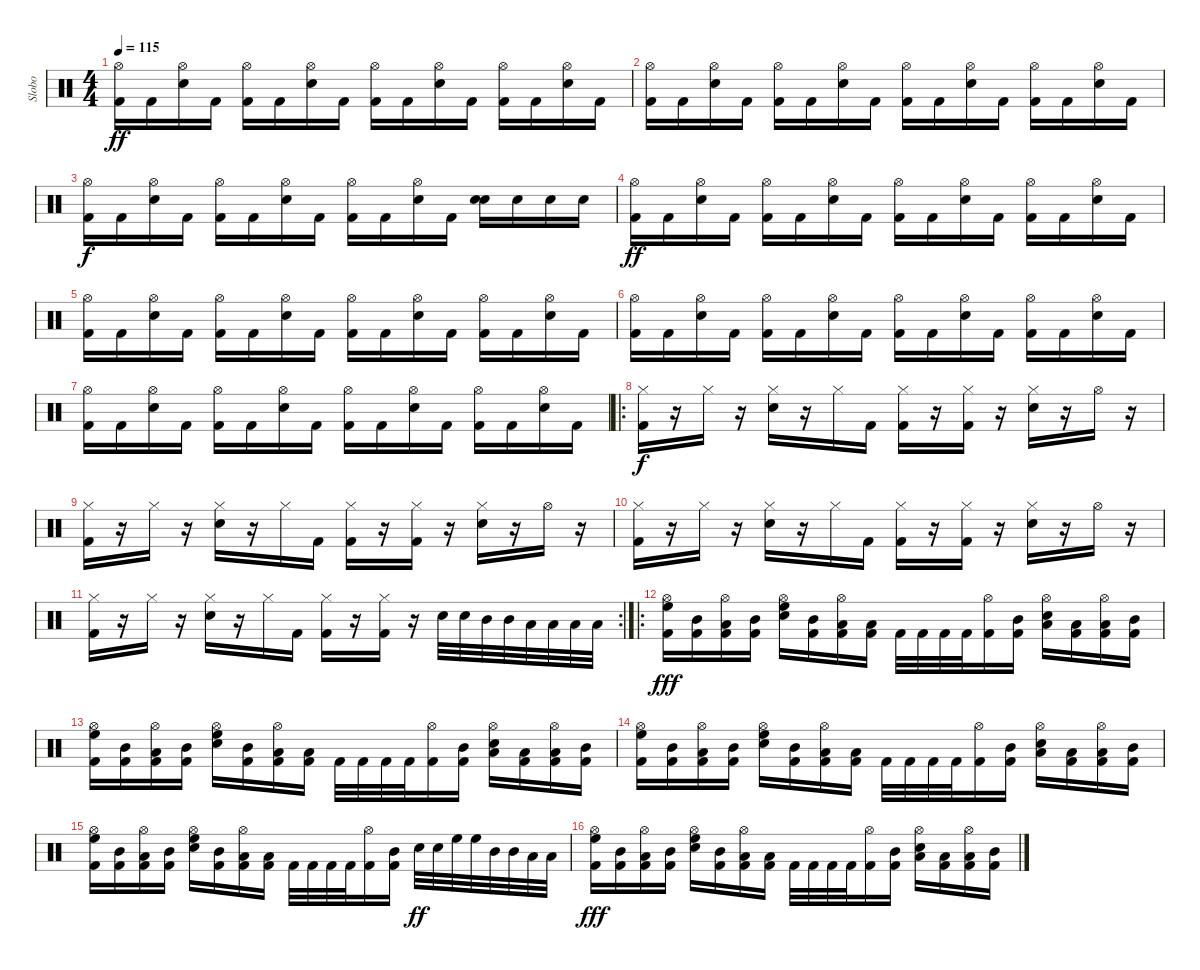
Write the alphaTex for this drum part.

\track ("Slobo" "Slobo") {instrument percussion}
\staff {score}
\articulation defaults
\ts (4 4)
\tempo 115
\clef neutral
\ks c
("Kick (hit) 2" "Hi-Hat (open)").16{dy ff} "Kick (hit) 2".16 ("Snare (hit) 2" "Hi-Hat (open)").16 "Kick (hit) 2".16 ("Kick (hit) 2" "Hi-Hat (open)").16 "Kick (hit) 2".16 ("Snare (hit) 2" "Hi-Hat (open)").16 "Kick (hit) 2".16 ("Kick (hit) 2" "Hi-Hat (open)").16 "Kick (hit) 2".16 ("Snare (hit) 2" "Hi-Hat (open)").16 "Kick (hit) 2".16 ("Kick (hit) 2" "Hi-Hat (open)").16 "Kick (hit) 2".16 ("Snare (hit) 2" "Hi-Hat (open)").16 "Kick (hit) 2".16 |
("Kick (hit) 2" "Hi-Hat (open)").16 "Kick (hit) 2".16 ("Snare (hit) 2" "Hi-Hat (open)").16 "Kick (hit) 2".16 ("Kick (hit) 2" "Hi-Hat (open)").16 "Kick (hit) 2".16 ("Snare (hit) 2" "Hi-Hat (open)").16 "Kick (hit) 2".16 ("Kick (hit) 2" "Hi-Hat (open)").16 "Kick (hit) 2".16 ("Snare (hit) 2" "Hi-Hat (open)").16 "Kick (hit) 2".16 ("Kick (hit) 2" "Hi-Hat (open)").16 "Kick (hit) 2".16 ("Snare (hit) 2" "Hi-Hat (open)").16 "Kick (hit) 2".16 |
("Kick (hit) 2" "Hi-Hat (open)").16{dy f} "Kick (hit) 2".16 ("Snare (hit) 2" "Hi-Hat (open)").16 "Kick (hit) 2".16 ("Kick (hit) 2" "Hi-Hat (open)").16 "Kick (hit) 2".16 ("Snare (hit) 2" "Hi-Hat (open)").16 "Kick (hit) 2".16 ("Kick (hit) 2" "Hi-Hat (open)").16 "Kick (hit) 2".16 ("Snare (hit) 2" "Hi-Hat (open)").16 "Kick (hit) 2".16 ("Snare (hit) 2" "Snare (hit) 2").16{bd 480} "Snare (hit) 2".16 "Snare (hit) 2".16 "Snare (hit) 2".16 |
("Kick (hit) 2" "Hi-Hat (open)").16{dy ff} "Kick (hit) 2".16 ("Snare (hit) 2" "Hi-Hat (open)").16 "Kick (hit) 2".16 ("Kick (hit) 2" "Hi-Hat (open)").16 "Kick (hit) 2".16 ("Snare (hit) 2" "Hi-Hat (open)").16 "Kick (hit) 2".16 ("Kick (hit) 2" "Hi-Hat (open)").16 "Kick (hit) 2".16 ("Snare (hit) 2" "Hi-Hat (open)").16 "Kick (hit) 2".16 ("Kick (hit) 2" "Hi-Hat (open)").16 "Kick (hit) 2".16 ("Snare (hit) 2" "Hi-Hat (open)").16 "Kick (hit) 2".16 |
("Kick (hit) 2" "Hi-Hat (open)").16 "Kick (hit) 2".16 ("Snare (hit) 2" "Hi-Hat (open)").16 "Kick (hit) 2".16 ("Kick (hit) 2" "Hi-Hat (open)").16 "Kick (hit) 2".16 ("Snare (hit) 2" "Hi-Hat (open)").16 "Kick (hit) 2".16 ("Kick (hit) 2" "Hi-Hat (open)").16 "Kick (hit) 2".16 ("Snare (hit) 2" "Hi-Hat (open)").16 "Kick (hit) 2".16 ("Kick (hit) 2" "Hi-Hat (open)").16 "Kick (hit) 2".16 ("Snare (hit) 2" "Hi-Hat (open)").16 "Kick (hit) 2".16 |
("Kick (hit) 2" "Hi-Hat (open)").16 "Kick (hit) 2".16 ("Snare (hit) 2" "Hi-Hat (open)").16 "Kick (hit) 2".16 ("Kick (hit) 2" "Hi-Hat (open)").16 "Kick (hit) 2".16 ("Snare (hit) 2" "Hi-Hat (open)").16 "Kick (hit) 2".16 ("Kick (hit) 2" "Hi-Hat (open)").16 "Kick (hit) 2".16 ("Snare (hit) 2" "Hi-Hat (open)").16 "Kick (hit) 2".16 ("Kick (hit) 2" "Hi-Hat (open)").16 "Kick (hit) 2".16 ("Snare (hit) 2" "Hi-Hat (open)").16 "Kick (hit) 2".16 |
("Kick (hit) 2" "Hi-Hat (open)").16 "Kick (hit) 2".16 ("Snare (hit) 2" "Hi-Hat (open)").16 "Kick (hit) 2".16 ("Kick (hit) 2" "Hi-Hat (open)").16 "Kick (hit) 2".16 ("Snare (hit) 2" "Hi-Hat (open)").16 "Kick (hit) 2".16 ("Kick (hit) 2" "Hi-Hat (open)").16 "Kick (hit) 2".16 ("Snare (hit) 2" "Hi-Hat (open)").16 "Kick (hit) 2".16 ("Kick (hit) 2" "Hi-Hat (open)").16 "Kick (hit) 2".16 ("Snare (hit) 2" "Hi-Hat (open)").16 "Kick (hit) 2".16 |
\ro
("Hi-Hat (closed)" "Kick (hit) 2").16{dy f} r.16 "Hi-Hat (closed)".16 r.16 ("Hi-Hat (closed)" "Snare (hit) 2").16 r.16 "Hi-Hat (closed)".16 "Kick (hit) 2".16 ("Hi-Hat (closed)" "Kick (hit) 2").16 r.16 ("Hi-Hat (closed)" "Kick (hit) 2").16 r.16 ("Hi-Hat (closed)" "Snare (hit) 2").16 r.16 "Hi-Hat (open)".16 r.16 |
("Hi-Hat (closed)" "Kick (hit) 2").16 r.16 "Hi-Hat (closed)".16 r.16 ("Hi-Hat (closed)" "Snare (hit) 2").16 r.16 "Hi-Hat (closed)".16 "Kick (hit) 2".16 ("Hi-Hat (closed)" "Kick (hit) 2").16 r.16 ("Hi-Hat (closed)" "Kick (hit) 2").16 r.16 ("Hi-Hat (closed)" "Snare (hit) 2").16 r.16 "Hi-Hat (open)".16 r.16 |
("Hi-Hat (closed)" "Kick (hit) 2").16 r.16 "Hi-Hat (closed)".16 r.16 ("Hi-Hat (closed)" "Snare (hit) 2").16 r.16 "Hi-Hat (closed)".16 "Kick (hit) 2".16 ("Hi-Hat (closed)" "Kick (hit) 2").16 r.16 ("Hi-Hat (closed)" "Kick (hit) 2").16 r.16 ("Hi-Hat (closed)" "Snare (hit) 2").16 r.16 "Hi-Hat (open)".16 r.16 |
\rc 2
("Hi-Hat (closed)" "Kick (hit) 2").16 r.16 "Hi-Hat (closed)".16 r.16 ("Hi-Hat (closed)" "Snare (hit) 2").16 r.16 "Hi-Hat (closed)".16 "Kick (hit) 2".16 ("Hi-Hat (closed)" "Kick (hit) 2").16 r.16 ("Hi-Hat (closed)" "Kick (hit) 2").16 r.16 "Snare (hit) 2".32 "Snare (hit) 2".32 "Mid Tom (hit)".32 "Mid Tom (hit)".32 "Low Tom (hit)".32 "Low Tom (hit)".32 "Low Floor Tom (hit)".32 "Low Floor Tom (hit)".32 |
\ro
("Hi-Hat (open)" "High Floor Tom (hit)" "Kick (hit) 2").16{dy fff} ("Mid Tom (hit)" "Kick (hit) 2").16 ("Hi-Hat (open)" "Low Tom (hit)" "Kick (hit) 2").16 ("Mid Tom (hit)" "Kick (hit) 2").16 ("Hi-Hat (open)" "High Floor Tom (hit)" "Snare (hit) 2").16 ("Mid Tom (hit)" "Kick (hit) 2").16 ("Hi-Hat (open)" "Low Tom (hit)" "Kick (hit) 2").16 ("Low Floor Tom (hit)" "Kick (hit) 2").16 "Kick (hit) 2".32 "Kick (hit) 2".32 "Kick (hit) 2".32 "Kick (hit) 2".32 ("Hi-Hat (open)" "Kick (hit) 2").16 ("Mid Tom (hit)" "Kick (hit) 2").16 ("Hi-Hat (open)" "Low Tom (hit)" "Snare (hit) 2").16 ("Low Floor Tom (hit)" "Kick (hit) 2").16 ("Hi-Hat (open)" "Low Tom (hit)" "Kick (hit) 2").16 ("Mid Tom (hit)" "Kick (hit) 2").16 |
("Hi-Hat (open)" "High Floor Tom (hit)" "Kick (hit) 2").16 ("Mid Tom (hit)" "Kick (hit) 2").16 ("Hi-Hat (open)" "Low Tom (hit)" "Kick (hit) 2").16 ("Mid Tom (hit)" "Kick (hit) 2").16 ("Hi-Hat (open)" "High Floor Tom (hit)" "Snare (hit) 2").16 ("Mid Tom (hit)" "Kick (hit) 2").16 ("Hi-Hat (open)" "Low Tom (hit)" "Kick (hit) 2").16 ("Low Floor Tom (hit)" "Kick (hit) 2").16 "Kick (hit) 2".32 "Kick (hit) 2".32 "Kick (hit) 2".32 "Kick (hit) 2".32 ("Hi-Hat (open)" "Kick (hit) 2").16 ("Mid Tom (hit)" "Kick (hit) 2").16 ("Hi-Hat (open)" "Low Tom (hit)" "Snare (hit) 2").16 ("Low Floor Tom (hit)" "Kick (hit) 2").16 ("Hi-Hat (open)" "Low Tom (hit)" "Kick (hit) 2").16 ("Mid Tom (hit)" "Kick (hit) 2").16 |
("Hi-Hat (open)" "High Floor Tom (hit)" "Kick (hit) 2").16 ("Mid Tom (hit)" "Kick (hit) 2").16 ("Hi-Hat (open)" "Low Tom (hit)" "Kick (hit) 2").16 ("Mid Tom (hit)" "Kick (hit) 2").16 ("Hi-Hat (open)" "High Floor Tom (hit)" "Snare (hit) 2").16 ("Mid Tom (hit)" "Kick (hit) 2").16 ("Hi-Hat (open)" "Low Tom (hit)" "Kick (hit) 2").16 ("Low Floor Tom (hit)" "Kick (hit) 2").16 "Kick (hit) 2".32 "Kick (hit) 2".32 "Kick (hit) 2".32 "Kick (hit) 2".32 ("Hi-Hat (open)" "Kick (hit) 2").16 ("Mid Tom (hit)" "Kick (hit) 2").16 ("Hi-Hat (open)" "Low Tom (hit)" "Snare (hit) 2").16 ("Low Floor Tom (hit)" "Kick (hit) 2").16 ("Hi-Hat (open)" "Low Tom (hit)" "Kick (hit) 2").16 ("Mid Tom (hit)" "Kick (hit) 2").16 |
("Hi-Hat (open)" "High Floor Tom (hit)" "Kick (hit) 2").16 ("Mid Tom (hit)" "Kick (hit) 2").16 ("Hi-Hat (open)" "Low Tom (hit)" "Kick (hit) 2").16 ("Mid Tom (hit)" "Kick (hit) 2").16 ("Hi-Hat (open)" "High Floor Tom (hit)" "Snare (hit) 2").16 ("Mid Tom (hit)" "Kick (hit) 2").16 ("Hi-Hat (open)" "Low Tom (hit)" "Kick (hit) 2").16 ("Low Floor Tom (hit)" "Kick (hit) 2").16 "Kick (hit) 2".32 "Kick (hit) 2".32 "Kick (hit) 2".32 "Kick (hit) 2".32 ("Hi-Hat (open)" "Kick (hit) 2").16 ("Mid Tom (hit)" "Kick (hit) 2").16 "Snare (hit) 2".32{dy ff} "Snare (hit) 2".32 "High Floor Tom (hit)".32 "High Floor Tom (hit)".32 "Mid Tom (hit)".32 "Mid Tom (hit)".32 "Low Tom (hit)".32 "Low Tom (hit)".32 |
("Hi-Hat (open)" "High Floor Tom (hit)" "Kick (hit) 2").16{dy fff} ("Mid Tom (hit)" "Kick (hit) 2").16 ("Hi-Hat (open)" "Low Tom (hit)" "Kick (hit) 2").16 ("Mid Tom (hit)" "Kick (hit) 2").16 ("Hi-Hat (open)" "High Floor Tom (hit)" "Snare (hit) 2").16 ("Mid Tom (hit)" "Kick (hit) 2").16 ("Hi-Hat (open)" "Low Tom (hit)" "Kick (hit) 2").16 ("Low Floor Tom (hit)" "Kick (hit) 2").16 "Kick (hit) 2".32 "Kick (hit) 2".32 "Kick (hit) 2".32 "Kick (hit) 2".32 ("Hi-Hat (open)" "Kick (hit) 2").16 ("Mid Tom (hit)" "Kick (hit) 2").16 ("Hi-Hat (open)" "Low Tom (hit)" "Snare (hit) 2").16 ("Low Floor Tom (hit)" "Kick (hit) 2").16 ("Hi-Hat (open)" "Low Tom (hit)" "Kick (hit) 2").16 ("Mid Tom (hit)" "Kick (hit) 2").16
